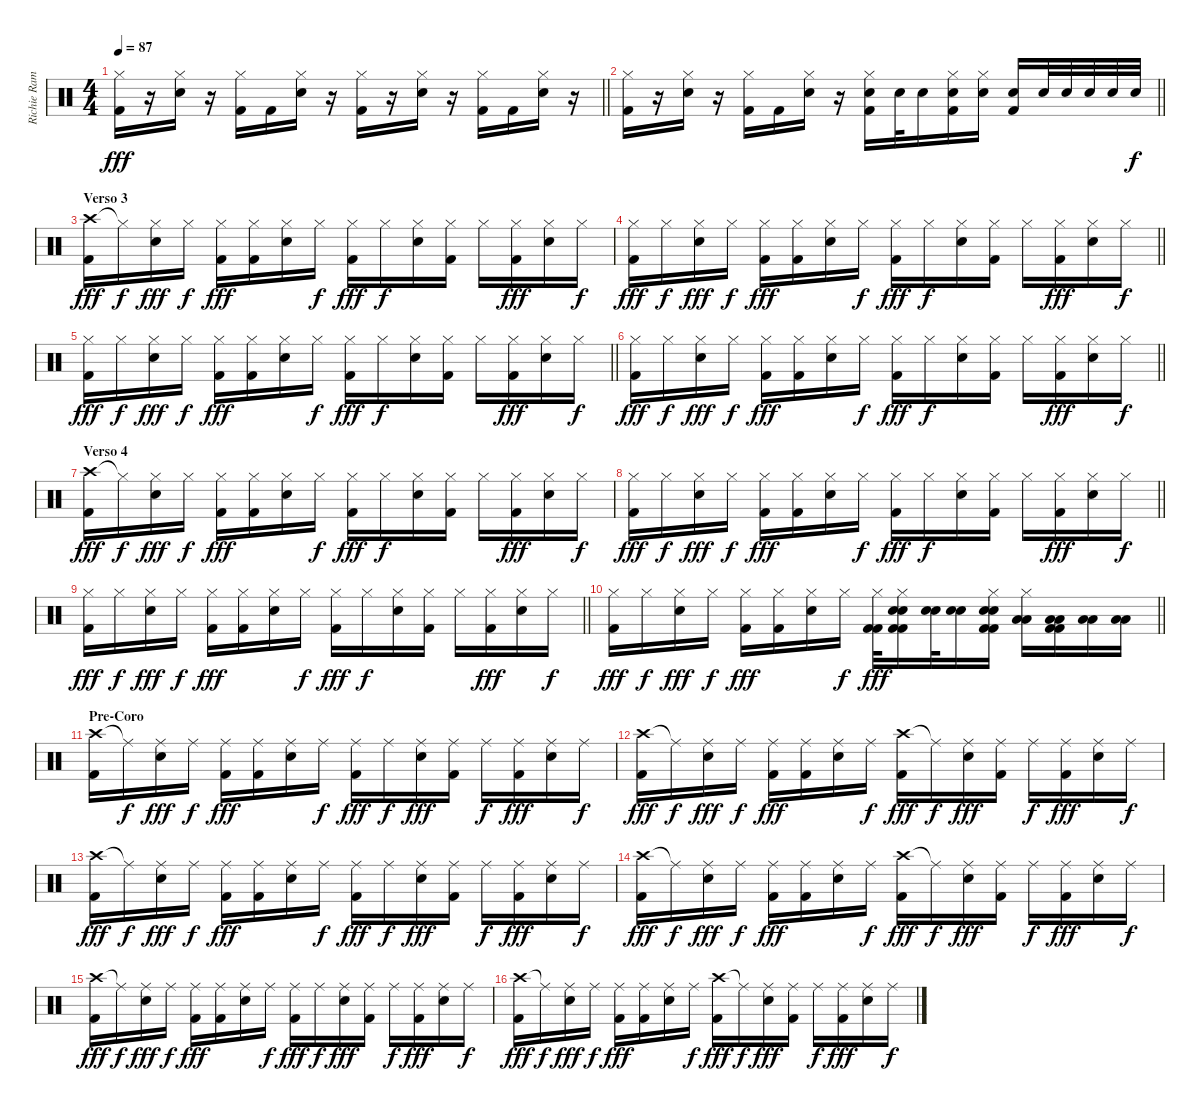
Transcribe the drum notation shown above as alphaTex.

\track ("Richie Ramone " "Richie Ram") {instrument percussion}
\staff {score}
\articulation defaults
\ts (4 4)
\tempo 87
\clef neutral
\barLineRight lightlight
\ks c
("Hi-Hat (closed)" "Kick (hit) 2").16{dy fff} r.16 ("Hi-Hat (closed)" "Electric Snare (hit)").16 r.16 ("Hi-Hat (closed)" "Kick (hit) 2").16 "Kick (hit) 2".16 ("Hi-Hat (closed)" "Electric Snare (hit)").16 r.16 ("Hi-Hat (closed)" "Kick (hit) 2").16 r.16 ("Hi-Hat (closed)" "Electric Snare (hit)").16 r.16 ("Hi-Hat (closed)" "Kick (hit) 2").16 "Kick (hit) 2".16 ("Hi-Hat (closed)" "Electric Snare (hit)").16 r.16 |
\barLineRight lightlight
("Hi-Hat (closed)" "Kick (hit) 2").16 r.16 ("Hi-Hat (closed)" "Electric Snare (hit)").16 r.16 ("Hi-Hat (closed)" "Kick (hit) 2").16 "Kick (hit) 2".16 ("Hi-Hat (closed)" "Electric Snare (hit)").16 r.16 ("Hi-Hat (closed)" "Electric Snare (hit)" "Kick (hit) 2").16 "Electric Snare (hit)".32 "Electric Snare (hit)".16 ("Hi-Hat (closed)" "Electric Snare (hit)" "Kick (hit) 2").16 ("Hi-Hat (closed)" "Electric Snare (hit)").16 ("Electric Snare (hit)" "Kick (hit) 2").16 "Electric Snare (hit)".32 "Electric Snare (hit)".32 "Electric Snare (hit)".32 "Electric Snare (hit)".32 "Electric Snare (hit)".32{dy f} |
\section ("" "Verso 3")
("Crash high (hit)" "Kick (hit) 2").16{dy fff} "Hi-Hat (closed)"{t}.16{dy f} ("Hi-Hat (closed)" "Electric Snare (hit)").16{dy fff} "Hi-Hat (closed)".16{dy f} ("Hi-Hat (closed)" "Kick (hit) 2").16{dy fff} ("Hi-Hat (closed)" "Kick (hit) 2").16 ("Hi-Hat (closed)" "Electric Snare (hit)").16 "Hi-Hat (closed)".16{dy f} ("Hi-Hat (closed)" "Kick (hit) 2").16{dy fff} "Hi-Hat (closed)".16{dy f} ("Hi-Hat (closed)" "Electric Snare (hit)").16 ("Hi-Hat (closed)" "Kick (hit) 2").16 "Hi-Hat (closed)".16 ("Hi-Hat (closed)" "Kick (hit) 2").16{dy fff} ("Hi-Hat (closed)" "Electric Snare (hit)").16 "Hi-Hat (closed)".16{dy f} |
\barLineRight lightlight
("Hi-Hat (closed)" "Kick (hit) 2").16{dy fff} "Hi-Hat (closed)".16{dy f} ("Hi-Hat (closed)" "Electric Snare (hit)").16{dy fff} "Hi-Hat (closed)".16{dy f} ("Hi-Hat (closed)" "Kick (hit) 2").16{dy fff} ("Hi-Hat (closed)" "Kick (hit) 2").16 ("Hi-Hat (closed)" "Electric Snare (hit)").16 "Hi-Hat (closed)".16{dy f} ("Hi-Hat (closed)" "Kick (hit) 2").16{dy fff} "Hi-Hat (closed)".16{dy f} ("Hi-Hat (closed)" "Electric Snare (hit)").16 ("Hi-Hat (closed)" "Kick (hit) 2").16 "Hi-Hat (closed)".16 ("Hi-Hat (closed)" "Kick (hit) 2").16{dy fff} ("Hi-Hat (closed)" "Electric Snare (hit)").16 "Hi-Hat (closed)".16{dy f} |
\barLineRight lightlight
("Hi-Hat (closed)" "Kick (hit) 2").16{dy fff} "Hi-Hat (closed)".16{dy f} ("Hi-Hat (closed)" "Electric Snare (hit)").16{dy fff} "Hi-Hat (closed)".16{dy f} ("Hi-Hat (closed)" "Kick (hit) 2").16{dy fff} ("Hi-Hat (closed)" "Kick (hit) 2").16 ("Hi-Hat (closed)" "Electric Snare (hit)").16 "Hi-Hat (closed)".16{dy f} ("Hi-Hat (closed)" "Kick (hit) 2").16{dy fff} "Hi-Hat (closed)".16{dy f} ("Hi-Hat (closed)" "Electric Snare (hit)").16 ("Hi-Hat (closed)" "Kick (hit) 2").16 "Hi-Hat (closed)".16 ("Hi-Hat (closed)" "Kick (hit) 2").16{dy fff} ("Hi-Hat (closed)" "Electric Snare (hit)").16 "Hi-Hat (closed)".16{dy f} |
\barLineRight lightlight
("Hi-Hat (closed)" "Kick (hit) 2").16{dy fff} "Hi-Hat (closed)".16{dy f} ("Hi-Hat (closed)" "Electric Snare (hit)").16{dy fff} "Hi-Hat (closed)".16{dy f} ("Hi-Hat (closed)" "Kick (hit) 2").16{dy fff} ("Hi-Hat (closed)" "Kick (hit) 2").16 ("Hi-Hat (closed)" "Electric Snare (hit)").16 "Hi-Hat (closed)".16{dy f} ("Hi-Hat (closed)" "Kick (hit) 2").16{dy fff} "Hi-Hat (closed)".16{dy f} ("Hi-Hat (closed)" "Electric Snare (hit)").16 ("Hi-Hat (closed)" "Kick (hit) 2").16 "Hi-Hat (closed)".16 ("Hi-Hat (closed)" "Kick (hit) 2").16{dy fff} ("Hi-Hat (closed)" "Electric Snare (hit)").16 "Hi-Hat (closed)".16{dy f} |
\section ("" "Verso 4")
("Crash high (hit)" "Kick (hit) 2").16{dy fff} "Hi-Hat (closed)"{t}.16{dy f} ("Hi-Hat (closed)" "Electric Snare (hit)").16{dy fff} "Hi-Hat (closed)".16{dy f} ("Hi-Hat (closed)" "Kick (hit) 2").16{dy fff} ("Hi-Hat (closed)" "Kick (hit) 2").16 ("Hi-Hat (closed)" "Electric Snare (hit)").16 "Hi-Hat (closed)".16{dy f} ("Hi-Hat (closed)" "Kick (hit) 2").16{dy fff} "Hi-Hat (closed)".16{dy f} ("Hi-Hat (closed)" "Electric Snare (hit)").16 ("Hi-Hat (closed)" "Kick (hit) 2").16 "Hi-Hat (closed)".16 ("Hi-Hat (closed)" "Kick (hit) 2").16{dy fff} ("Hi-Hat (closed)" "Electric Snare (hit)").16 "Hi-Hat (closed)".16{dy f} |
\barLineRight lightlight
("Hi-Hat (closed)" "Kick (hit) 2").16{dy fff} "Hi-Hat (closed)".16{dy f} ("Hi-Hat (closed)" "Electric Snare (hit)").16{dy fff} "Hi-Hat (closed)".16{dy f} ("Hi-Hat (closed)" "Kick (hit) 2").16{dy fff} ("Hi-Hat (closed)" "Kick (hit) 2").16 ("Hi-Hat (closed)" "Electric Snare (hit)").16 "Hi-Hat (closed)".16{dy f} ("Hi-Hat (closed)" "Kick (hit) 2").16{dy fff} "Hi-Hat (closed)".16{dy f} ("Hi-Hat (closed)" "Electric Snare (hit)").16 ("Hi-Hat (closed)" "Kick (hit) 2").16 "Hi-Hat (closed)".16 ("Hi-Hat (closed)" "Kick (hit) 2").16{dy fff} ("Hi-Hat (closed)" "Electric Snare (hit)").16 "Hi-Hat (closed)".16{dy f} |
\barLineRight lightlight
("Hi-Hat (closed)" "Kick (hit) 2").16{dy fff} "Hi-Hat (closed)".16{dy f} ("Hi-Hat (closed)" "Electric Snare (hit)").16{dy fff} "Hi-Hat (closed)".16{dy f} ("Hi-Hat (closed)" "Kick (hit) 2").16{dy fff} ("Hi-Hat (closed)" "Kick (hit) 2").16 ("Hi-Hat (closed)" "Electric Snare (hit)").16 "Hi-Hat (closed)".16{dy f} ("Hi-Hat (closed)" "Kick (hit) 2").16{dy fff} "Hi-Hat (closed)".16{dy f} ("Hi-Hat (closed)" "Electric Snare (hit)").16 ("Hi-Hat (closed)" "Kick (hit) 2").16 "Hi-Hat (closed)".16 ("Hi-Hat (closed)" "Kick (hit) 2").16{dy fff} ("Hi-Hat (closed)" "Electric Snare (hit)").16 "Hi-Hat (closed)".16{dy f} |
\barLineRight lightlight
("Hi-Hat (closed)" "Kick (hit) 2").16{dy fff} "Hi-Hat (closed)".16{dy f} ("Hi-Hat (closed)" "Electric Snare (hit)").16{dy fff} "Hi-Hat (closed)".16{dy f} ("Hi-Hat (closed)" "Kick (hit) 2").16{dy fff} ("Hi-Hat (closed)" "Kick (hit) 2").16 ("Hi-Hat (closed)" "Electric Snare (hit)").16 "Hi-Hat (closed)".16{dy f} ("Hi-Hat (closed)" "Kick (hit) 2" "Kick (hit) 2").32{dy fff} ("Hi-Hat (closed)" "Electric Snare (hit)" "Electric Snare (hit)" "Kick (hit) 2" "Kick (hit) 2").16 ("Electric Snare (hit)" "Electric Snare (hit)").32 ("Electric Snare (hit)" "Electric Snare (hit)").16 ("Hi-Hat (closed)" "Electric Snare (hit)" "Electric Snare (hit)" "Kick (hit) 2" "Kick (hit) 2").16 ("Hi-Hat (closed)" "Low Tom (hit)" "Low Tom (hit)").16 ("Low Tom (hit)" "Low Tom (hit)" "Kick (hit) 2" "Kick (hit) 2").16 ("Low Tom (hit)" "Low Tom (hit)").16 ("Low Tom (hit)" "Low Tom (hit)").16 |
\section ("" "Pre-Coro")
("Crash high (hit)" "Kick (hit) 2").16 "Ride (middle)"{t}.16{dy f} ("Ride (middle)" "Electric Snare (hit)").16{dy fff} "Ride (middle)".16{dy f} ("Ride (middle)" "Kick (hit) 2").16{dy fff} ("Ride (middle)" "Kick (hit) 2").16 ("Ride (middle)" "Electric Snare (hit)").16 "Ride (middle)".16{dy f} ("Ride (middle)" "Kick (hit) 2").16{dy fff} "Ride (middle)".16{dy f} ("Ride (middle)" "Electric Snare (hit)").16{dy fff} ("Ride (middle)" "Kick (hit) 2").16 "Ride (middle)".16{dy f} ("Ride (middle)" "Kick (hit) 2").16{dy fff} ("Ride (middle)" "Electric Snare (hit)").16 "Ride (middle)".16{dy f} |
("Crash high (hit)" "Kick (hit) 2").16{dy fff} "Ride (middle)"{t}.16{dy f} ("Ride (middle)" "Electric Snare (hit)").16{dy fff} "Ride (middle)".16{dy f} ("Ride (middle)" "Kick (hit) 2").16{dy fff} ("Ride (middle)" "Kick (hit) 2").16 ("Ride (middle)" "Electric Snare (hit)").16 "Ride (middle)".16{dy f} ("Crash high (hit)" "Kick (hit) 2").16{dy fff} "Ride (middle)"{t}.16{dy f} ("Ride (middle)" "Electric Snare (hit)").16{dy fff} ("Ride (middle)" "Kick (hit) 2").16 "Ride (middle)".16{dy f} ("Ride (middle)" "Kick (hit) 2").16{dy fff} ("Ride (middle)" "Electric Snare (hit)").16 "Ride (middle)".16{dy f} |
("Crash high (hit)" "Kick (hit) 2").16{dy fff} "Ride (middle)"{t}.16{dy f} ("Ride (middle)" "Electric Snare (hit)").16{dy fff} "Ride (middle)".16{dy f} ("Ride (middle)" "Kick (hit) 2").16{dy fff} ("Ride (middle)" "Kick (hit) 2").16 ("Ride (middle)" "Electric Snare (hit)").16 "Ride (middle)".16{dy f} ("Ride (middle)" "Kick (hit) 2").16{dy fff} "Ride (middle)".16{dy f} ("Ride (middle)" "Electric Snare (hit)").16{dy fff} ("Ride (middle)" "Kick (hit) 2").16 "Ride (middle)".16{dy f} ("Ride (middle)" "Kick (hit) 2").16{dy fff} ("Ride (middle)" "Electric Snare (hit)").16 "Ride (middle)".16{dy f} |
("Crash high (hit)" "Kick (hit) 2").16{dy fff} "Ride (middle)"{t}.16{dy f} ("Ride (middle)" "Electric Snare (hit)").16{dy fff} "Ride (middle)".16{dy f} ("Ride (middle)" "Kick (hit) 2").16{dy fff} ("Ride (middle)" "Kick (hit) 2").16 ("Ride (middle)" "Electric Snare (hit)").16 "Ride (middle)".16{dy f} ("Crash high (hit)" "Kick (hit) 2").16{dy fff} "Ride (middle)"{t}.16{dy f} ("Ride (middle)" "Electric Snare (hit)").16{dy fff} ("Ride (middle)" "Kick (hit) 2").16 "Ride (middle)".16{dy f} ("Ride (middle)" "Kick (hit) 2").16{dy fff} ("Ride (middle)" "Electric Snare (hit)").16 "Ride (middle)".16{dy f} |
("Crash high (hit)" "Kick (hit) 2").16{dy fff} "Ride (middle)"{t}.16{dy f} ("Ride (middle)" "Electric Snare (hit)").16{dy fff} "Ride (middle)".16{dy f} ("Ride (middle)" "Kick (hit) 2").16{dy fff} ("Ride (middle)" "Kick (hit) 2").16 ("Ride (middle)" "Electric Snare (hit)").16 "Ride (middle)".16{dy f} ("Ride (middle)" "Kick (hit) 2").16{dy fff} "Ride (middle)".16{dy f} ("Ride (middle)" "Electric Snare (hit)").16{dy fff} ("Ride (middle)" "Kick (hit) 2").16 "Ride (middle)".16{dy f} ("Ride (middle)" "Kick (hit) 2").16{dy fff} ("Ride (middle)" "Electric Snare (hit)").16 "Ride (middle)".16{dy f} |
("Crash high (hit)" "Kick (hit) 2").16{dy fff} "Ride (middle)"{t}.16{dy f} ("Ride (middle)" "Electric Snare (hit)").16{dy fff} "Ride (middle)".16{dy f} ("Ride (middle)" "Kick (hit) 2").16{dy fff} ("Ride (middle)" "Kick (hit) 2").16 ("Ride (middle)" "Electric Snare (hit)").16 "Ride (middle)".16{dy f} ("Crash high (hit)" "Kick (hit) 2").16{dy fff} "Ride (middle)"{t}.16{dy f} ("Ride (middle)" "Electric Snare (hit)").16{dy fff} ("Ride (middle)" "Kick (hit) 2").16 "Ride (middle)".16{dy f} ("Ride (middle)" "Kick (hit) 2").16{dy fff} ("Ride (middle)" "Electric Snare (hit)").16 "Ride (middle)".16{dy f}
